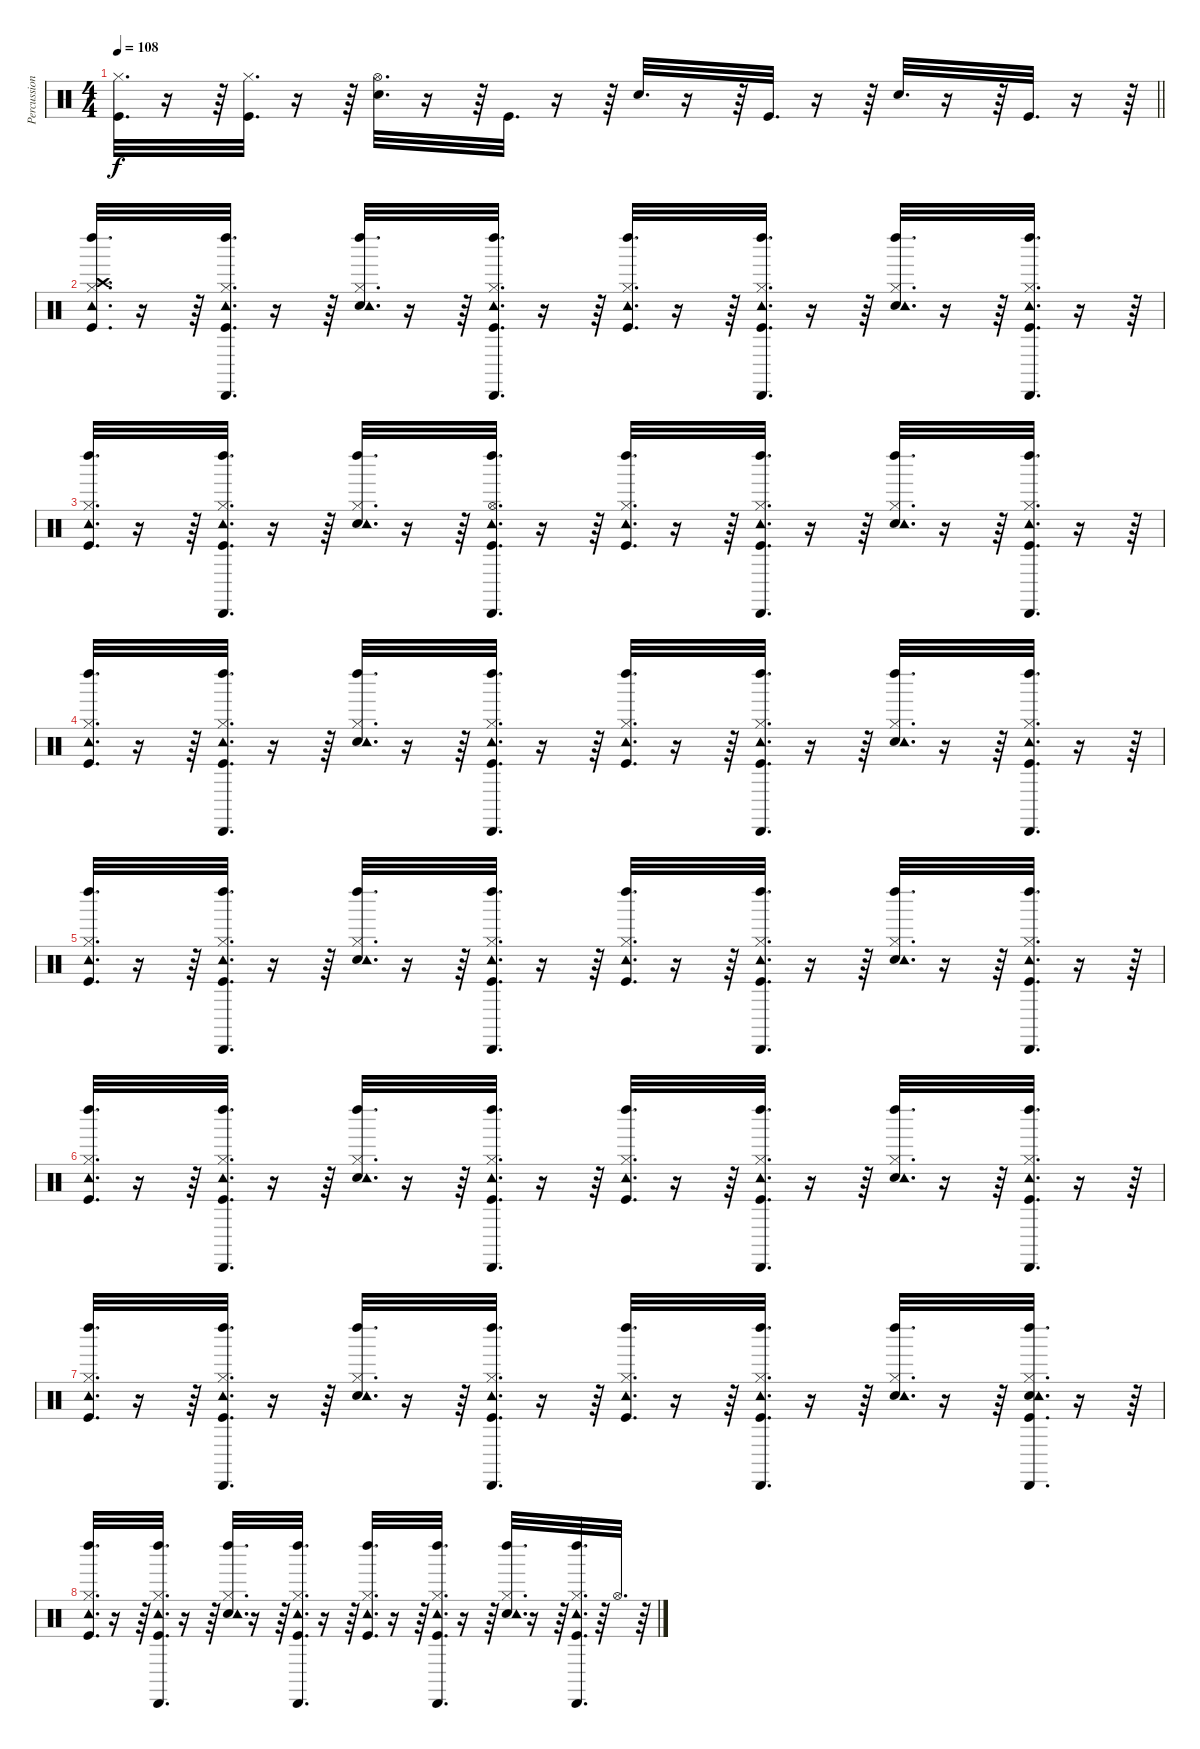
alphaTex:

\track ("Percussions" "Percussion") {instrument percussion}
\staff {score}
\articulation defaults
\ts (4 4)
\tempo 108
\clef neutral
\barLineRight lightlight
\ks c
("Hi-Hat (closed)" "Kick (hit)").32{d dy f} r.16 r.64 ("Hi-Hat (closed)" "Kick (hit)").32{d} r.16 r.64 ("Hi-Hat (open)" "Snare (hit) 2").32{d} r.16 r.64 "Kick (hit)".32{d} r.16 r.64 "Snare (hit) 2".32{d} r.16 r.64 "Kick (hit)".32{d} r.16 r.64 "Snare (hit) 2".32{d} r.16 r.64 "Kick (hit)".32{d} r.16 r.64 |
\section ("" "")
("Left Maraca (hit)" "Crash high (hit)" "Kick (hit)" "Hi-Hat (closed)" "Tambourine (hit)").32{d} r.16 r.64 ("Cabasa (hit)" "Tambourine (hit)" "Kick (hit)" "Hi-Hat (closed)" "Left Maraca (hit)").32{d} r.16 r.64 ("Left Maraca (hit)" "Snare (hit) 2" "Hi-Hat (closed)" "Tambourine (hit)").32{d} r.16 r.64 ("Cabasa (hit)" "Tambourine (hit)" "Kick (hit)" "Hi-Hat (closed)" "Left Maraca (hit)").32{d} r.16 r.64 ("Left Maraca (hit)" "Kick (hit)" "Hi-Hat (closed)" "Tambourine (hit)").32{d} r.16 r.64 ("Cabasa (hit)" "Tambourine (hit)" "Kick (hit)" "Hi-Hat (closed)" "Left Maraca (hit)").32{d} r.16 r.64 ("Left Maraca (hit)" "Snare (hit) 2" "Hi-Hat (closed)" "Tambourine (hit)").32{d} r.16 r.64 ("Cabasa (hit)" "Tambourine (hit)" "Kick (hit)" "Hi-Hat (closed)" "Left Maraca (hit)").32{d} r.16 r.64 |
("Left Maraca (hit)" "Kick (hit)" "Hi-Hat (closed)" "Tambourine (hit)").32{d} r.16 r.64 ("Cabasa (hit)" "Tambourine (hit)" "Kick (hit)" "Hi-Hat (closed)" "Left Maraca (hit)").32{d} r.16 r.64 ("Left Maraca (hit)" "Snare (hit) 2" "Hi-Hat (closed)" "Tambourine (hit)").32{d} r.16 r.64 ("Cabasa (hit)" "Tambourine (hit)" "Kick (hit)" "Hi-Hat (open)" "Left Maraca (hit)").32{d} r.16 r.64 ("Left Maraca (hit)" "Kick (hit)" "Hi-Hat (closed)" "Tambourine (hit)").32{d} r.16 r.64 ("Cabasa (hit)" "Tambourine (hit)" "Kick (hit)" "Hi-Hat (closed)" "Left Maraca (hit)").32{d} r.16 r.64 ("Left Maraca (hit)" "Snare (hit) 2" "Hi-Hat (closed)" "Tambourine (hit)").32{d} r.16 r.64 ("Cabasa (hit)" "Tambourine (hit)" "Kick (hit)" "Hi-Hat (closed)" "Left Maraca (hit)").32{d} r.16 r.64 |
("Left Maraca (hit)" "Kick (hit)" "Hi-Hat (closed)" "Tambourine (hit)").32{d} r.16 r.64 ("Cabasa (hit)" "Tambourine (hit)" "Kick (hit)" "Hi-Hat (closed)" "Left Maraca (hit)").32{d} r.16 r.64 ("Left Maraca (hit)" "Snare (hit) 2" "Hi-Hat (closed)" "Tambourine (hit)").32{d} r.16 r.64 ("Cabasa (hit)" "Tambourine (hit)" "Kick (hit)" "Hi-Hat (closed)" "Left Maraca (hit)").32{d} r.16 r.64 ("Left Maraca (hit)" "Kick (hit)" "Hi-Hat (closed)" "Tambourine (hit)").32{d} r.16 r.64 ("Cabasa (hit)" "Tambourine (hit)" "Kick (hit)" "Hi-Hat (closed)" "Left Maraca (hit)").32{d} r.16 r.64 ("Left Maraca (hit)" "Snare (hit) 2" "Hi-Hat (closed)" "Tambourine (hit)").32{d} r.16 r.64 ("Cabasa (hit)" "Tambourine (hit)" "Kick (hit)" "Hi-Hat (closed)" "Left Maraca (hit)").32{d} r.16 r.64 |
("Left Maraca (hit)" "Kick (hit)" "Hi-Hat (closed)" "Tambourine (hit)").32{d} r.16 r.64 ("Cabasa (hit)" "Tambourine (hit)" "Kick (hit)" "Hi-Hat (closed)" "Left Maraca (hit)").32{d} r.16 r.64 ("Left Maraca (hit)" "Snare (hit) 2" "Hi-Hat (closed)" "Tambourine (hit)").32{d} r.16 r.64 ("Cabasa (hit)" "Tambourine (hit)" "Kick (hit)" "Hi-Hat (closed)" "Left Maraca (hit)").32{d} r.16 r.64 ("Left Maraca (hit)" "Kick (hit)" "Hi-Hat (closed)" "Tambourine (hit)").32{d} r.16 r.64 ("Cabasa (hit)" "Tambourine (hit)" "Kick (hit)" "Hi-Hat (closed)" "Left Maraca (hit)").32{d} r.16 r.64 ("Left Maraca (hit)" "Snare (hit) 2" "Hi-Hat (closed)" "Tambourine (hit)").32{d} r.16 r.64 ("Cabasa (hit)" "Tambourine (hit)" "Kick (hit)" "Hi-Hat (closed)" "Left Maraca (hit)").32{d} r.16 r.64 |
("Left Maraca (hit)" "Kick (hit)" "Hi-Hat (closed)" "Tambourine (hit)").32{d} r.16 r.64 ("Cabasa (hit)" "Tambourine (hit)" "Kick (hit)" "Hi-Hat (closed)" "Left Maraca (hit)").32{d} r.16 r.64 ("Left Maraca (hit)" "Snare (hit) 2" "Hi-Hat (closed)" "Tambourine (hit)").32{d} r.16 r.64 ("Cabasa (hit)" "Tambourine (hit)" "Kick (hit)" "Hi-Hat (closed)" "Left Maraca (hit)").32{d} r.16 r.64 ("Left Maraca (hit)" "Kick (hit)" "Hi-Hat (closed)" "Tambourine (hit)").32{d} r.16 r.64 ("Cabasa (hit)" "Tambourine (hit)" "Kick (hit)" "Hi-Hat (closed)" "Left Maraca (hit)").32{d} r.16 r.64 ("Left Maraca (hit)" "Snare (hit) 2" "Hi-Hat (closed)" "Tambourine (hit)").32{d} r.16 r.64 ("Cabasa (hit)" "Tambourine (hit)" "Kick (hit)" "Hi-Hat (closed)" "Left Maraca (hit)").32{d} r.16 r.64 |
("Left Maraca (hit)" "Kick (hit)" "Hi-Hat (closed)" "Tambourine (hit)").32{d} r.16 r.64 ("Cabasa (hit)" "Tambourine (hit)" "Kick (hit)" "Hi-Hat (closed)" "Left Maraca (hit)").32{d} r.16 r.64 ("Left Maraca (hit)" "Snare (hit) 2" "Hi-Hat (closed)" "Tambourine (hit)").32{d} r.16 r.64 ("Cabasa (hit)" "Tambourine (hit)" "Kick (hit)" "Hi-Hat (closed)" "Left Maraca (hit)").32{d} r.16 r.64 ("Left Maraca (hit)" "Kick (hit)" "Hi-Hat (closed)" "Tambourine (hit)").32{d} r.16 r.64 ("Cabasa (hit)" "Tambourine (hit)" "Kick (hit)" "Hi-Hat (closed)" "Left Maraca (hit)").32{d} r.16 r.64 ("Left Maraca (hit)" "Snare (hit) 2" "Hi-Hat (closed)" "Tambourine (hit)").32{d} r.16 r.64 ("Cabasa (hit)" "Snare (hit) 2" "Hi-Hat (closed)" "Kick (hit)" "Left Maraca (hit)" "Tambourine (hit)").32{d} r.16 r.64 |
("Left Maraca (hit)" "Kick (hit)" "Hi-Hat (closed)" "Tambourine (hit)").32{d} r.16 r.64 ("Cabasa (hit)" "Tambourine (hit)" "Kick (hit)" "Hi-Hat (closed)" "Left Maraca (hit)").32{d} r.16 r.64 ("Left Maraca (hit)" "Snare (hit) 2" "Hi-Hat (closed)" "Tambourine (hit)").32{d} r.16 r.64 ("Cabasa (hit)" "Tambourine (hit)" "Kick (hit)" "Hi-Hat (closed)" "Left Maraca (hit)").32{d} r.16 r.64 ("Left Maraca (hit)" "Kick (hit)" "Hi-Hat (closed)" "Tambourine (hit)").32{d} r.16 r.64 ("Cabasa (hit)" "Tambourine (hit)" "Kick (hit)" "Hi-Hat (closed)" "Left Maraca (hit)").32{d} r.16 r.64 ("Left Maraca (hit)" "Snare (hit) 2" "Hi-Hat (closed)" "Tambourine (hit)").32{d} r.16 r.64 ("Cabasa (hit)" "Tambourine (hit)" "Kick (hit)" "Hi-Hat (closed)" "Left Maraca (hit)").32{d} r.64 "Hi-Hat (open)".32{d} r.64
